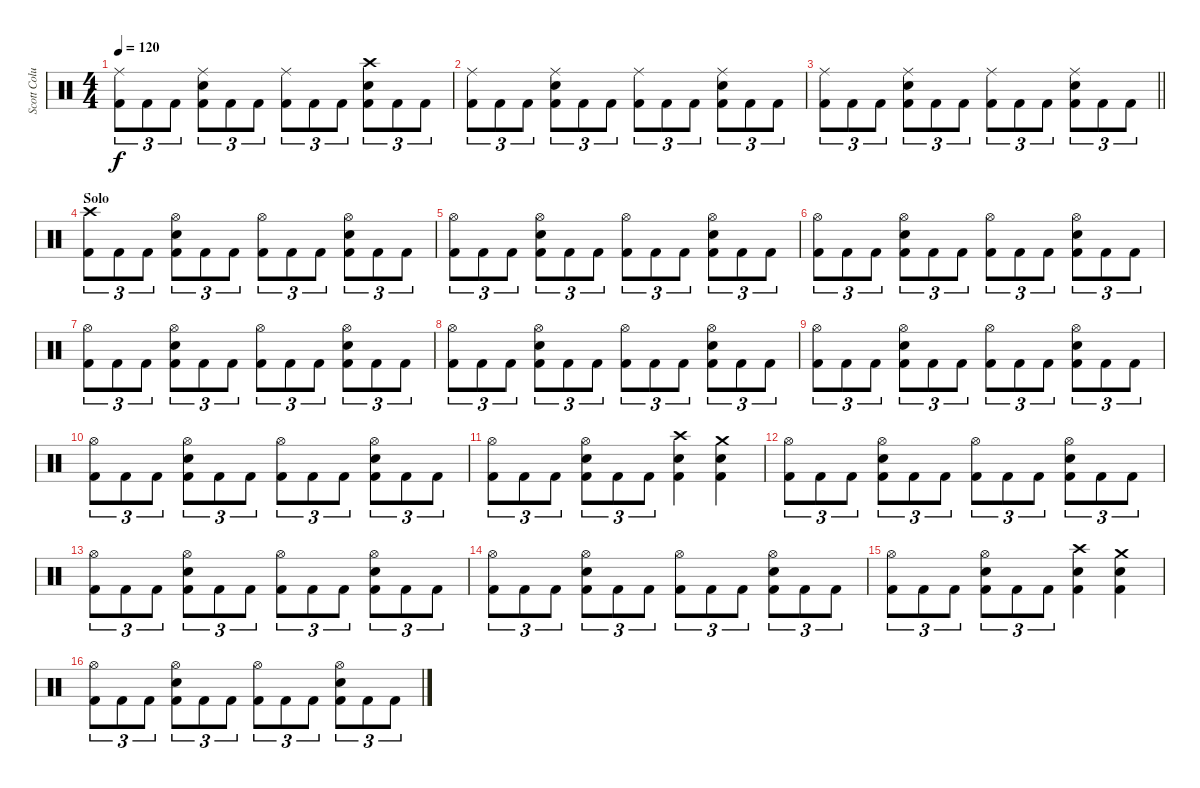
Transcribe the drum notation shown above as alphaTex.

\track ("Scott Columbus" "Scott Colu") {instrument percussion}
\staff {score}
\articulation defaults
\ts (4 4)
\tempo 120
\clef neutral
\ks c
("Ride (middle)" "Kick (hit) 2").8{tu (3 2) dy f} "Kick (hit) 2".8{tu (3 2)} "Kick (hit) 2".8{tu (3 2)} ("Ride (middle)" "Snare (hit) 2" "Kick (hit) 2").8{tu (3 2)} "Kick (hit) 2".8{tu (3 2)} "Kick (hit) 2".8{tu (3 2)} ("Ride (middle)" "Kick (hit) 2").8{tu (3 2)} "Kick (hit) 2".8{tu (3 2)} "Kick (hit) 2".8{tu (3 2)} ("Crash high (hit)" "Snare (hit) 2" "Kick (hit) 2").8{tu (3 2)} "Kick (hit) 2".8{tu (3 2)} "Kick (hit) 2".8{tu (3 2)} |
("Ride (middle)" "Kick (hit) 2").8{tu (3 2)} "Kick (hit) 2".8{tu (3 2)} "Kick (hit) 2".8{tu (3 2)} ("Ride (middle)" "Snare (hit) 2" "Kick (hit) 2").8{tu (3 2)} "Kick (hit) 2".8{tu (3 2)} "Kick (hit) 2".8{tu (3 2)} ("Ride (middle)" "Kick (hit) 2").8{tu (3 2)} "Kick (hit) 2".8{tu (3 2)} "Kick (hit) 2".8{tu (3 2)} ("Ride (middle)" "Snare (hit) 2" "Kick (hit) 2").8{tu (3 2)} "Kick (hit) 2".8{tu (3 2)} "Kick (hit) 2".8{tu (3 2)} |
\barLineRight lightlight
("Ride (middle)" "Kick (hit) 2").8{tu (3 2)} "Kick (hit) 2".8{tu (3 2)} "Kick (hit) 2".8{tu (3 2)} ("Ride (middle)" "Snare (hit) 2" "Kick (hit) 2").8{tu (3 2)} "Kick (hit) 2".8{tu (3 2)} "Kick (hit) 2".8{tu (3 2)} ("Ride (middle)" "Kick (hit) 2").8{tu (3 2)} "Kick (hit) 2".8{tu (3 2)} "Kick (hit) 2".8{tu (3 2)} ("Ride (middle)" "Snare (hit) 2" "Kick (hit) 2").8{tu (3 2)} "Kick (hit) 2".8{tu (3 2)} "Kick (hit) 2".8{tu (3 2)} |
\section ("" "Solo")
("Crash high (hit)" "Kick (hit) 2").8{tu (3 2)} "Kick (hit) 2".8{tu (3 2)} "Kick (hit) 2".8{tu (3 2)} ("Hi-Hat (open)" "Snare (hit) 2" "Kick (hit) 2").8{tu (3 2)} "Kick (hit) 2".8{tu (3 2)} "Kick (hit) 2".8{tu (3 2)} ("Hi-Hat (open)" "Kick (hit) 2").8{tu (3 2)} "Kick (hit) 2".8{tu (3 2)} "Kick (hit) 2".8{tu (3 2)} ("Hi-Hat (open)" "Snare (hit) 2" "Kick (hit) 2").8{tu (3 2)} "Kick (hit) 2".8{tu (3 2)} "Kick (hit) 2".8{tu (3 2)} |
("Hi-Hat (open)" "Kick (hit) 2").8{tu (3 2)} "Kick (hit) 2".8{tu (3 2)} "Kick (hit) 2".8{tu (3 2)} ("Hi-Hat (open)" "Snare (hit) 2" "Kick (hit) 2").8{tu (3 2)} "Kick (hit) 2".8{tu (3 2)} "Kick (hit) 2".8{tu (3 2)} ("Hi-Hat (open)" "Kick (hit) 2").8{tu (3 2)} "Kick (hit) 2".8{tu (3 2)} "Kick (hit) 2".8{tu (3 2)} ("Hi-Hat (open)" "Snare (hit) 2" "Kick (hit) 2").8{tu (3 2)} "Kick (hit) 2".8{tu (3 2)} "Kick (hit) 2".8{tu (3 2)} |
("Hi-Hat (open)" "Kick (hit) 2").8{tu (3 2)} "Kick (hit) 2".8{tu (3 2)} "Kick (hit) 2".8{tu (3 2)} ("Hi-Hat (open)" "Snare (hit) 2" "Kick (hit) 2").8{tu (3 2)} "Kick (hit) 2".8{tu (3 2)} "Kick (hit) 2".8{tu (3 2)} ("Hi-Hat (open)" "Kick (hit) 2").8{tu (3 2)} "Kick (hit) 2".8{tu (3 2)} "Kick (hit) 2".8{tu (3 2)} ("Hi-Hat (open)" "Snare (hit) 2" "Kick (hit) 2").8{tu (3 2)} "Kick (hit) 2".8{tu (3 2)} "Kick (hit) 2".8{tu (3 2)} |
("Hi-Hat (open)" "Kick (hit) 2").8{tu (3 2)} "Kick (hit) 2".8{tu (3 2)} "Kick (hit) 2".8{tu (3 2)} ("Hi-Hat (open)" "Snare (hit) 2" "Kick (hit) 2").8{tu (3 2)} "Kick (hit) 2".8{tu (3 2)} "Kick (hit) 2".8{tu (3 2)} ("Hi-Hat (open)" "Kick (hit) 2").8{tu (3 2)} "Kick (hit) 2".8{tu (3 2)} "Kick (hit) 2".8{tu (3 2)} ("Hi-Hat (open)" "Snare (hit) 2" "Kick (hit) 2").8{tu (3 2)} "Kick (hit) 2".8{tu (3 2)} "Kick (hit) 2".8{tu (3 2)} |
("Hi-Hat (open)" "Kick (hit) 2").8{tu (3 2)} "Kick (hit) 2".8{tu (3 2)} "Kick (hit) 2".8{tu (3 2)} ("Hi-Hat (open)" "Snare (hit) 2" "Kick (hit) 2").8{tu (3 2)} "Kick (hit) 2".8{tu (3 2)} "Kick (hit) 2".8{tu (3 2)} ("Hi-Hat (open)" "Kick (hit) 2").8{tu (3 2)} "Kick (hit) 2".8{tu (3 2)} "Kick (hit) 2".8{tu (3 2)} ("Hi-Hat (open)" "Snare (hit) 2" "Kick (hit) 2").8{tu (3 2)} "Kick (hit) 2".8{tu (3 2)} "Kick (hit) 2".8{tu (3 2)} |
("Hi-Hat (open)" "Kick (hit) 2").8{tu (3 2)} "Kick (hit) 2".8{tu (3 2)} "Kick (hit) 2".8{tu (3 2)} ("Hi-Hat (open)" "Snare (hit) 2" "Kick (hit) 2").8{tu (3 2)} "Kick (hit) 2".8{tu (3 2)} "Kick (hit) 2".8{tu (3 2)} ("Hi-Hat (open)" "Kick (hit) 2").8{tu (3 2)} "Kick (hit) 2".8{tu (3 2)} "Kick (hit) 2".8{tu (3 2)} ("Hi-Hat (open)" "Snare (hit) 2" "Kick (hit) 2").8{tu (3 2)} "Kick (hit) 2".8{tu (3 2)} "Kick (hit) 2".8{tu (3 2)} |
("Hi-Hat (open)" "Kick (hit) 2").8{tu (3 2)} "Kick (hit) 2".8{tu (3 2)} "Kick (hit) 2".8{tu (3 2)} ("Hi-Hat (open)" "Snare (hit) 2" "Kick (hit) 2").8{tu (3 2)} "Kick (hit) 2".8{tu (3 2)} "Kick (hit) 2".8{tu (3 2)} ("Hi-Hat (open)" "Kick (hit) 2").8{tu (3 2)} "Kick (hit) 2".8{tu (3 2)} "Kick (hit) 2".8{tu (3 2)} ("Hi-Hat (open)" "Snare (hit) 2" "Kick (hit) 2").8{tu (3 2)} "Kick (hit) 2".8{tu (3 2)} "Kick (hit) 2".8{tu (3 2)} |
("Hi-Hat (open)" "Kick (hit) 2").8{tu (3 2)} "Kick (hit) 2".8{tu (3 2)} "Kick (hit) 2".8{tu (3 2)} ("Hi-Hat (open)" "Snare (hit) 2" "Kick (hit) 2").8{tu (3 2)} "Kick (hit) 2".8{tu (3 2)} "Kick (hit) 2".8{tu (3 2)} ("Crash high (hit)" "Snare (hit) 2" "Kick (hit) 2").4 ("Crash medium (hit)" "Snare (hit) 2" "Kick (hit) 2").4 |
("Hi-Hat (open)" "Kick (hit) 2").8{tu (3 2)} "Kick (hit) 2".8{tu (3 2)} "Kick (hit) 2".8{tu (3 2)} ("Hi-Hat (open)" "Snare (hit) 2" "Kick (hit) 2").8{tu (3 2)} "Kick (hit) 2".8{tu (3 2)} "Kick (hit) 2".8{tu (3 2)} ("Hi-Hat (open)" "Kick (hit) 2").8{tu (3 2)} "Kick (hit) 2".8{tu (3 2)} "Kick (hit) 2".8{tu (3 2)} ("Hi-Hat (open)" "Snare (hit) 2" "Kick (hit) 2").8{tu (3 2)} "Kick (hit) 2".8{tu (3 2)} "Kick (hit) 2".8{tu (3 2)} |
("Hi-Hat (open)" "Kick (hit) 2").8{tu (3 2)} "Kick (hit) 2".8{tu (3 2)} "Kick (hit) 2".8{tu (3 2)} ("Hi-Hat (open)" "Snare (hit) 2" "Kick (hit) 2").8{tu (3 2)} "Kick (hit) 2".8{tu (3 2)} "Kick (hit) 2".8{tu (3 2)} ("Hi-Hat (open)" "Kick (hit) 2").8{tu (3 2)} "Kick (hit) 2".8{tu (3 2)} "Kick (hit) 2".8{tu (3 2)} ("Hi-Hat (open)" "Snare (hit) 2" "Kick (hit) 2").8{tu (3 2)} "Kick (hit) 2".8{tu (3 2)} "Kick (hit) 2".8{tu (3 2)} |
("Hi-Hat (open)" "Kick (hit) 2").8{tu (3 2)} "Kick (hit) 2".8{tu (3 2)} "Kick (hit) 2".8{tu (3 2)} ("Hi-Hat (open)" "Snare (hit) 2" "Kick (hit) 2").8{tu (3 2)} "Kick (hit) 2".8{tu (3 2)} "Kick (hit) 2".8{tu (3 2)} ("Hi-Hat (open)" "Kick (hit) 2").8{tu (3 2)} "Kick (hit) 2".8{tu (3 2)} "Kick (hit) 2".8{tu (3 2)} ("Hi-Hat (open)" "Snare (hit) 2" "Kick (hit) 2").8{tu (3 2)} "Kick (hit) 2".8{tu (3 2)} "Kick (hit) 2".8{tu (3 2)} |
("Hi-Hat (open)" "Kick (hit) 2").8{tu (3 2)} "Kick (hit) 2".8{tu (3 2)} "Kick (hit) 2".8{tu (3 2)} ("Hi-Hat (open)" "Snare (hit) 2" "Kick (hit) 2").8{tu (3 2)} "Kick (hit) 2".8{tu (3 2)} "Kick (hit) 2".8{tu (3 2)} ("Crash high (hit)" "Snare (hit) 2" "Kick (hit) 2").4 ("Crash medium (hit)" "Snare (hit) 2" "Kick (hit) 2").4 |
("Hi-Hat (open)" "Kick (hit) 2").8{tu (3 2)} "Kick (hit) 2".8{tu (3 2)} "Kick (hit) 2".8{tu (3 2)} ("Hi-Hat (open)" "Snare (hit) 2" "Kick (hit) 2").8{tu (3 2)} "Kick (hit) 2".8{tu (3 2)} "Kick (hit) 2".8{tu (3 2)} ("Hi-Hat (open)" "Kick (hit) 2").8{tu (3 2)} "Kick (hit) 2".8{tu (3 2)} "Kick (hit) 2".8{tu (3 2)} ("Hi-Hat (open)" "Snare (hit) 2" "Kick (hit) 2").8{tu (3 2)} "Kick (hit) 2".8{tu (3 2)} "Kick (hit) 2".8{tu (3 2)}
